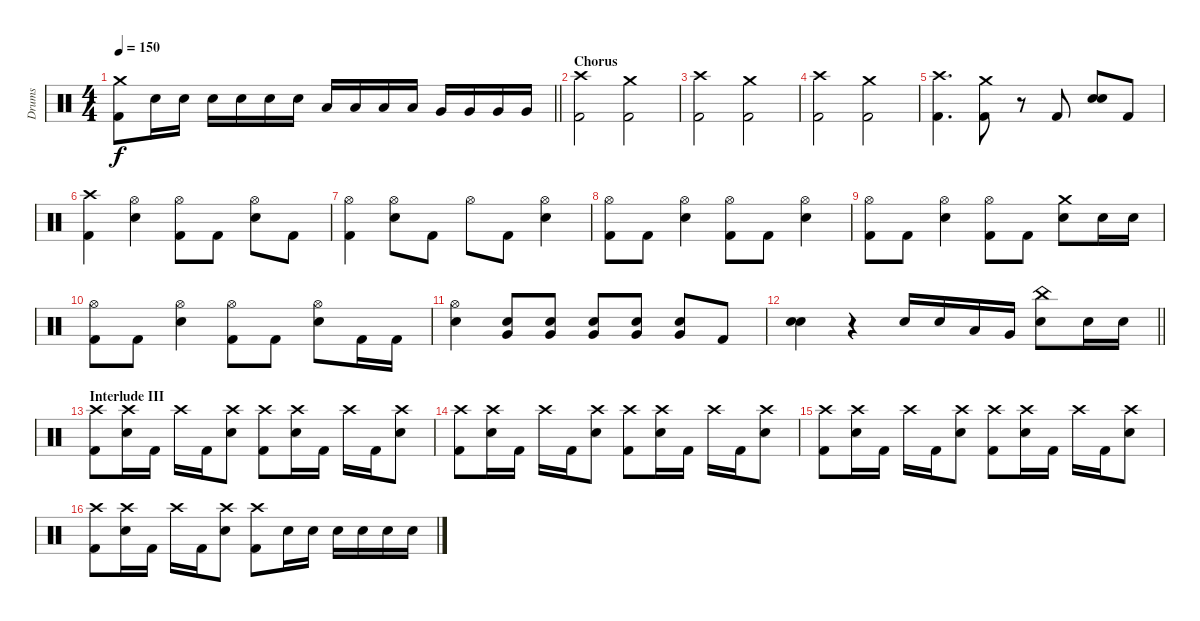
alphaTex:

\track ("Drums" "Drums") {instrument percussion}
\staff {score}
\articulation defaults
\ts (4 4)
\tempo 150
\clef neutral
\barLineRight lightlight
\ks c
("Crash medium (hit)" "Kick (hit) 2").8{dy f} "Electric Snare (hit)".16 "Electric Snare (hit)".16 "Electric Snare (hit)".16 "Electric Snare (hit)".16 "Electric Snare (hit)".16 "Electric Snare (hit)".16 "Low Tom (hit)".16 "Low Tom (hit)".16 "Low Tom (hit)".16 "Low Tom (hit)".16 "Very Low Tom (hit)".16 "Very Low Tom (hit)".16 "Very Low Tom (hit)".16 "Very Low Tom (hit)".16 |
\section ("" "Chorus")
("Crash high (hit)" "Kick (hit) 2").2 ("Crash medium (hit)" "Kick (hit) 2").2 |
("Crash high (hit)" "Kick (hit) 2").2 ("Crash medium (hit)" "Kick (hit) 2").2 |
("Crash high (hit)" "Kick (hit) 2").2 ("Crash medium (hit)" "Kick (hit) 2").2 |
("Crash high (hit)" "Kick (hit) 2").4{d} ("Crash medium (hit)" "Kick (hit) 2").8 r.8 "Kick (hit) 2".8 ("Electric Snare (hit)" "Electric Snare (hit)").8{bd 120} "Kick (hit) 2".8 |
("Crash high (hit)" "Kick (hit) 2").4 ("Hi-Hat (open)" "Electric Snare (hit)").4 ("Hi-Hat (open)" "Kick (hit) 2").8 "Kick (hit) 2".8 ("Hi-Hat (open)" "Electric Snare (hit)").8 "Kick (hit) 2".8 |
("Hi-Hat (open)" "Kick (hit) 2").4 ("Hi-Hat (open)" "Electric Snare (hit)").8 "Kick (hit) 2".8 "Hi-Hat (open)".8 "Kick (hit) 2".8 ("Hi-Hat (open)" "Electric Snare (hit)").4 |
("Hi-Hat (open)" "Kick (hit) 2").8 "Kick (hit) 2".8 ("Hi-Hat (open)" "Electric Snare (hit)").4 ("Hi-Hat (open)" "Kick (hit) 2").8 "Kick (hit) 2".8 ("Hi-Hat (open)" "Electric Snare (hit)").4 |
("Hi-Hat (open)" "Kick (hit) 2").8 "Kick (hit) 2".8 ("Hi-Hat (open)" "Electric Snare (hit)").4 ("Hi-Hat (open)" "Kick (hit) 2").8 "Kick (hit) 2".8 ("Crash medium (hit)" "Electric Snare (hit)").8 "Electric Snare (hit)".16 "Electric Snare (hit)".16 |
("Hi-Hat (open)" "Kick (hit) 2").8 "Kick (hit) 2".8 ("Hi-Hat (open)" "Electric Snare (hit)").4 ("Hi-Hat (open)" "Kick (hit) 2").8 "Kick (hit) 2".8 ("Hi-Hat (open)" "Electric Snare (hit)").8 "Kick (hit) 2".16 "Kick (hit) 2".16 |
("Hi-Hat (open)" "Electric Snare (hit)").4 ("Very Low Tom (hit)" "Electric Snare (hit)").8 ("Very Low Tom (hit)" "Electric Snare (hit)").8 ("Very Low Tom (hit)" "Electric Snare (hit)").8 ("Very Low Tom (hit)" "Electric Snare (hit)").8 ("Very Low Tom (hit)" "Electric Snare (hit)").8 "Kick (hit) 2".8 |
\barLineRight lightlight
("Electric Snare (hit)" "Electric Snare (hit)").4 r.4 "Electric Snare (hit)".16 "Electric Snare (hit)".16 "Low Tom (hit)".16 "Very Low Tom (hit)".16 ("China (hit)" "Electric Snare (hit)").8 "Electric Snare (hit)".16 "Electric Snare (hit)".16 |
\section ("" "Interlude III")
("Crash high (hit)" "Kick (hit) 2").8 ("Crash high (hit)" "Electric Snare (hit)").16 "Kick (hit) 2".16 "Crash high (hit)".16 "Kick (hit) 2".16 ("Crash high (hit)" "Electric Snare (hit)").8 ("Crash high (hit)" "Kick (hit) 2").8 ("Crash high (hit)" "Electric Snare (hit)").16 "Kick (hit) 2".16 "Crash high (hit)".16 "Kick (hit) 2".16 ("Crash high (hit)" "Electric Snare (hit)").8 |
("Crash high (hit)" "Kick (hit) 2").8 ("Crash high (hit)" "Electric Snare (hit)").16 "Kick (hit) 2".16 "Crash high (hit)".16 "Kick (hit) 2".16 ("Crash high (hit)" "Electric Snare (hit)").8 ("Crash high (hit)" "Kick (hit) 2").8 ("Crash high (hit)" "Electric Snare (hit)").16 "Kick (hit) 2".16 "Crash high (hit)".16 "Kick (hit) 2".16 ("Crash high (hit)" "Electric Snare (hit)").8 |
("Crash high (hit)" "Kick (hit) 2").8 ("Crash high (hit)" "Electric Snare (hit)").16 "Kick (hit) 2".16 "Crash high (hit)".16 "Kick (hit) 2".16 ("Crash high (hit)" "Electric Snare (hit)").8 ("Crash high (hit)" "Kick (hit) 2").8 ("Crash high (hit)" "Electric Snare (hit)").16 "Kick (hit) 2".16 "Crash high (hit)".16 "Kick (hit) 2".16 ("Crash high (hit)" "Electric Snare (hit)").8 |
("Crash high (hit)" "Kick (hit) 2").8 ("Crash high (hit)" "Electric Snare (hit)").16 "Kick (hit) 2".16 "Crash high (hit)".16 "Kick (hit) 2".16 ("Crash high (hit)" "Electric Snare (hit)").8 ("Crash high (hit)" "Kick (hit) 2").8 "Electric Snare (hit)".16 "Electric Snare (hit)".16 "Electric Snare (hit)".16 "Electric Snare (hit)".16 "Electric Snare (hit)".16 "Electric Snare (hit)".16
